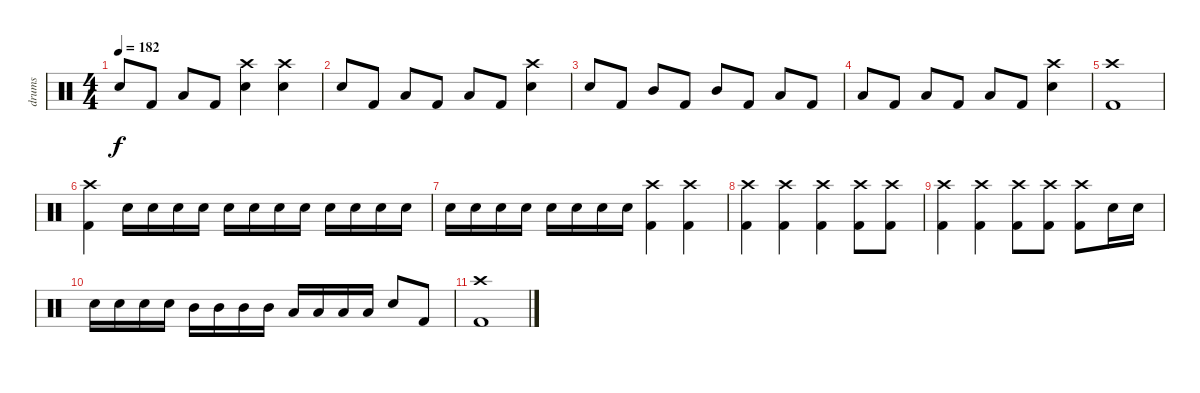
\track ("drums" "drums") {instrument percussion}
\staff {score}
\articulation defaults
\ts (4 4)
\tempo 182
\clef neutral
\ks c "Electric Snare (hit)".8{dy f} "Kick (hit) 2".8 "Low Tom (hit)".8 "Kick (hit) 2".8
("Crash high (hit)" "Electric Snare (hit)").4 ("Crash high (hit)" "Electric Snare (hit)").4 |
"Electric Snare (hit)".8 "Kick (hit) 2".8 "Low Tom (hit)".8 "Kick (hit) 2".8 "Low Floor Tom (hit)".8 "Kick (hit) 2".8 ("Crash high (hit)" "Electric Snare (hit)").4 |
"Electric Snare (hit)".8 "Kick (hit) 2".8 "Mid Tom (hit)".8 "Kick (hit) 2".8 "Mid Tom (hit)".8 "Kick (hit) 2".8 "Low Tom (hit)".8 "Kick (hit) 2".8 |
"Low Tom (hit)".8 "Kick (hit) 2".8 "Low Floor Tom (hit)".8 "Kick (hit) 2".8 "Low Floor Tom (hit)".8 "Kick (hit) 2".8 ("Crash high (hit)" "Electric Snare (hit)").4 |
("Crash high (hit)" "Kick (hit) 2").1 |
("Crash high (hit)" "Kick (hit) 2").4 "Electric Snare (hit)".16 "Electric Snare (hit)".16 "Electric Snare (hit)".16 "Electric Snare (hit)".16 "Electric Snare (hit)".16 "Electric Snare (hit)".16 "Electric Snare (hit)".16 "Electric Snare (hit)".16 "Electric Snare (hit)".16 "Electric Snare (hit)".16 "Electric Snare (hit)".16 "Electric Snare (hit)".16 |
"Electric Snare (hit)".16 "Electric Snare (hit)".16 "Electric Snare (hit)".16 "Electric Snare (hit)".16 "Electric Snare (hit)".16 "Electric Snare (hit)".16 "Electric Snare (hit)".16 "Electric Snare (hit)".16 ("Crash high (hit)" "Kick (hit) 2").4 ("Crash high (hit)" "Kick (hit) 2").4 |
("Crash high (hit)" "Kick (hit) 2").4 ("Crash high (hit)" "Kick (hit) 2").4 ("Crash high (hit)" "Kick (hit) 2").4 ("Crash high (hit)" "Kick (hit) 2").8 ("Crash high (hit)" "Kick (hit) 2").8 |
("Crash high (hit)" "Kick (hit) 2").4 ("Crash high (hit)" "Kick (hit) 2").4 ("Crash high (hit)" "Kick (hit) 2").8 ("Crash high (hit)" "Kick (hit) 2").8 ("Crash high (hit)" "Kick (hit) 2").8 "Electric Snare (hit)".16 "Electric Snare (hit)".16 |
"Electric Snare (hit)".16 "Electric Snare (hit)".16 "Electric Snare (hit)".16 "Electric Snare (hit)".16 "Mid Tom (hit)".16 "Mid Tom (hit)".16 "Mid Tom (hit)".16 "Mid Tom (hit)".16 "Low Tom (hit)".16 "Low Tom (hit)".16 "Low Tom (hit)".16 "Low Tom (hit)".16 "Electric Snare (hit)".8 "Kick (hit) 2".8 |
("Crash high (hit)" "Kick (hit) 2").1
